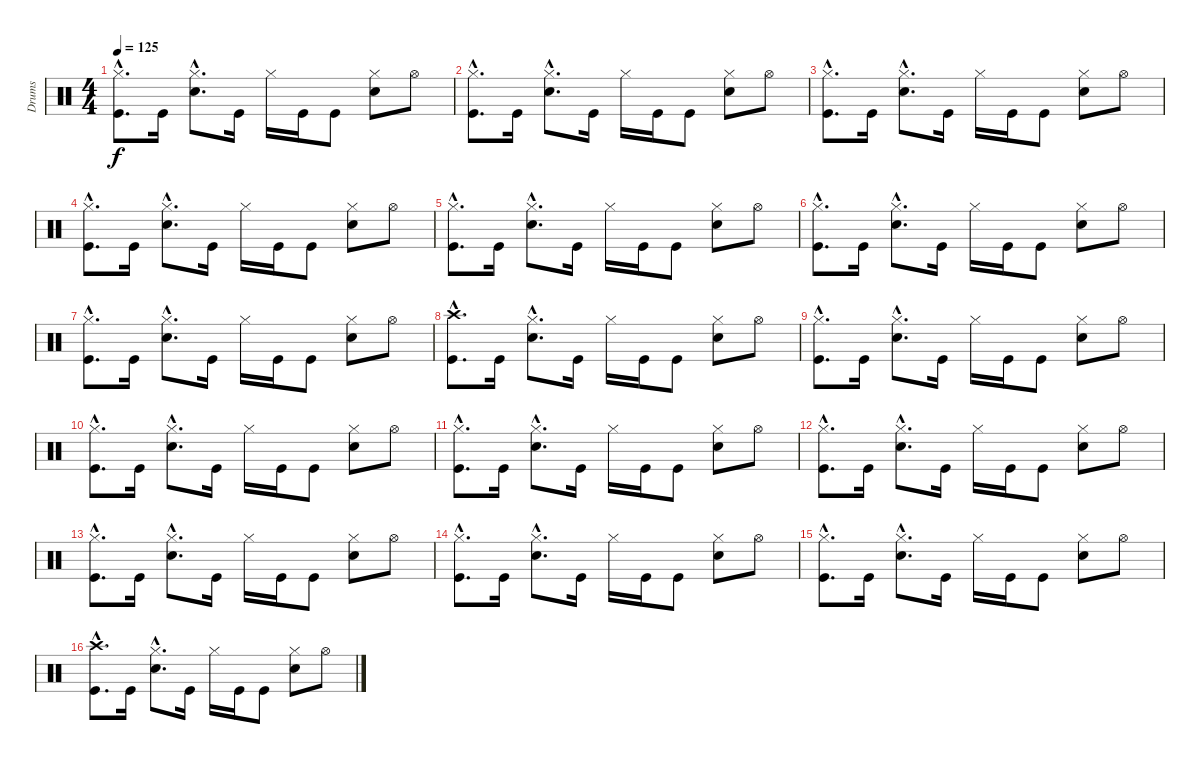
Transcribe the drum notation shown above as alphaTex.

\track ("Drums" "Drums") {instrument percussion}
\staff {score}
\articulation defaults
\ts (4 4)
\tempo 125
\clef neutral
\ks c
("Hi-Hat (closed)"{hac} "Kick (hit)"{hac}).8{d dy f} "Kick (hit)".16 ("Hi-Hat (closed)"{hac} "Electric Snare (hit)"{hac}).8{d} "Kick (hit)".16 "Hi-Hat (closed)".16 "Kick (hit)".16 "Kick (hit)".8 ("Hi-Hat (closed)" "Electric Snare (hit)").8 "Hi-Hat (open)".8 |
("Hi-Hat (closed)"{hac} "Kick (hit)"{hac}).8{d} "Kick (hit)".16 ("Hi-Hat (closed)"{hac} "Electric Snare (hit)"{hac}).8{d} "Kick (hit)".16 "Hi-Hat (closed)".16 "Kick (hit)".16 "Kick (hit)".8 ("Hi-Hat (closed)" "Electric Snare (hit)").8 "Hi-Hat (open)".8 |
("Hi-Hat (closed)"{hac} "Kick (hit)"{hac}).8{d} "Kick (hit)".16 ("Hi-Hat (closed)"{hac} "Electric Snare (hit)"{hac}).8{d} "Kick (hit)".16 "Hi-Hat (closed)".16 "Kick (hit)".16 "Kick (hit)".8 ("Hi-Hat (closed)" "Electric Snare (hit)").8 "Hi-Hat (open)".8 |
("Hi-Hat (closed)"{hac} "Kick (hit)"{hac}).8{d} "Kick (hit)".16 ("Hi-Hat (closed)"{hac} "Electric Snare (hit)"{hac}).8{d} "Kick (hit)".16 "Hi-Hat (closed)".16 "Kick (hit)".16 "Kick (hit)".8 ("Hi-Hat (closed)" "Electric Snare (hit)").8 "Hi-Hat (open)".8 |
("Hi-Hat (closed)"{hac} "Kick (hit)"{hac}).8{d} "Kick (hit)".16 ("Hi-Hat (closed)"{hac} "Electric Snare (hit)"{hac}).8{d} "Kick (hit)".16 "Hi-Hat (closed)".16 "Kick (hit)".16 "Kick (hit)".8 ("Hi-Hat (closed)" "Electric Snare (hit)").8 "Hi-Hat (open)".8 |
("Hi-Hat (closed)"{hac} "Kick (hit)"{hac}).8{d} "Kick (hit)".16 ("Hi-Hat (closed)"{hac} "Electric Snare (hit)"{hac}).8{d} "Kick (hit)".16 "Hi-Hat (closed)".16 "Kick (hit)".16 "Kick (hit)".8 ("Hi-Hat (closed)" "Electric Snare (hit)").8 "Hi-Hat (open)".8 |
("Hi-Hat (closed)"{hac} "Kick (hit)"{hac}).8{d} "Kick (hit)".16 ("Hi-Hat (closed)"{hac} "Electric Snare (hit)"{hac}).8{d} "Kick (hit)".16 "Hi-Hat (closed)".16 "Kick (hit)".16 "Kick (hit)".8 ("Hi-Hat (closed)" "Electric Snare (hit)").8 "Hi-Hat (open)".8 |
("Crash high (hit)"{hac} "Kick (hit)"{hac}).8{d} "Kick (hit)".16 ("Hi-Hat (closed)"{hac} "Electric Snare (hit)"{hac}).8{d} "Kick (hit)".16 "Hi-Hat (closed)".16 "Kick (hit)".16 "Kick (hit)".8 ("Hi-Hat (closed)" "Electric Snare (hit)").8 "Hi-Hat (open)".8 |
("Hi-Hat (closed)"{hac} "Kick (hit)"{hac}).8{d} "Kick (hit)".16 ("Hi-Hat (closed)"{hac} "Electric Snare (hit)"{hac}).8{d} "Kick (hit)".16 "Hi-Hat (closed)".16 "Kick (hit)".16 "Kick (hit)".8 ("Hi-Hat (closed)" "Electric Snare (hit)").8 "Hi-Hat (open)".8 |
("Hi-Hat (closed)"{hac} "Kick (hit)"{hac}).8{d} "Kick (hit)".16 ("Hi-Hat (closed)"{hac} "Electric Snare (hit)"{hac}).8{d} "Kick (hit)".16 "Hi-Hat (closed)".16 "Kick (hit)".16 "Kick (hit)".8 ("Hi-Hat (closed)" "Electric Snare (hit)").8 "Hi-Hat (open)".8 |
("Hi-Hat (closed)"{hac} "Kick (hit)"{hac}).8{d} "Kick (hit)".16 ("Hi-Hat (closed)"{hac} "Electric Snare (hit)"{hac}).8{d} "Kick (hit)".16 "Hi-Hat (closed)".16 "Kick (hit)".16 "Kick (hit)".8 ("Hi-Hat (closed)" "Electric Snare (hit)").8 "Hi-Hat (open)".8 |
("Hi-Hat (closed)"{hac} "Kick (hit)"{hac}).8{d} "Kick (hit)".16 ("Hi-Hat (closed)"{hac} "Electric Snare (hit)"{hac}).8{d} "Kick (hit)".16 "Hi-Hat (closed)".16 "Kick (hit)".16 "Kick (hit)".8 ("Hi-Hat (closed)" "Electric Snare (hit)").8 "Hi-Hat (open)".8 |
("Hi-Hat (closed)"{hac} "Kick (hit)"{hac}).8{d} "Kick (hit)".16 ("Hi-Hat (closed)"{hac} "Electric Snare (hit)"{hac}).8{d} "Kick (hit)".16 "Hi-Hat (closed)".16 "Kick (hit)".16 "Kick (hit)".8 ("Hi-Hat (closed)" "Electric Snare (hit)").8 "Hi-Hat (open)".8 |
("Hi-Hat (closed)"{hac} "Kick (hit)"{hac}).8{d} "Kick (hit)".16 ("Hi-Hat (closed)"{hac} "Electric Snare (hit)"{hac}).8{d} "Kick (hit)".16 "Hi-Hat (closed)".16 "Kick (hit)".16 "Kick (hit)".8 ("Hi-Hat (closed)" "Electric Snare (hit)").8 "Hi-Hat (open)".8 |
("Hi-Hat (closed)"{hac} "Kick (hit)"{hac}).8{d} "Kick (hit)".16 ("Hi-Hat (closed)"{hac} "Electric Snare (hit)"{hac}).8{d} "Kick (hit)".16 "Hi-Hat (closed)".16 "Kick (hit)".16 "Kick (hit)".8 ("Hi-Hat (closed)" "Electric Snare (hit)").8 "Hi-Hat (open)".8 |
("Crash high (hit)"{hac} "Kick (hit)"{hac}).8{d} "Kick (hit)".16 ("Hi-Hat (closed)"{hac} "Electric Snare (hit)"{hac}).8{d} "Kick (hit)".16 "Hi-Hat (closed)".16 "Kick (hit)".16 "Kick (hit)".8 ("Hi-Hat (closed)" "Electric Snare (hit)").8 "Hi-Hat (open)".8
